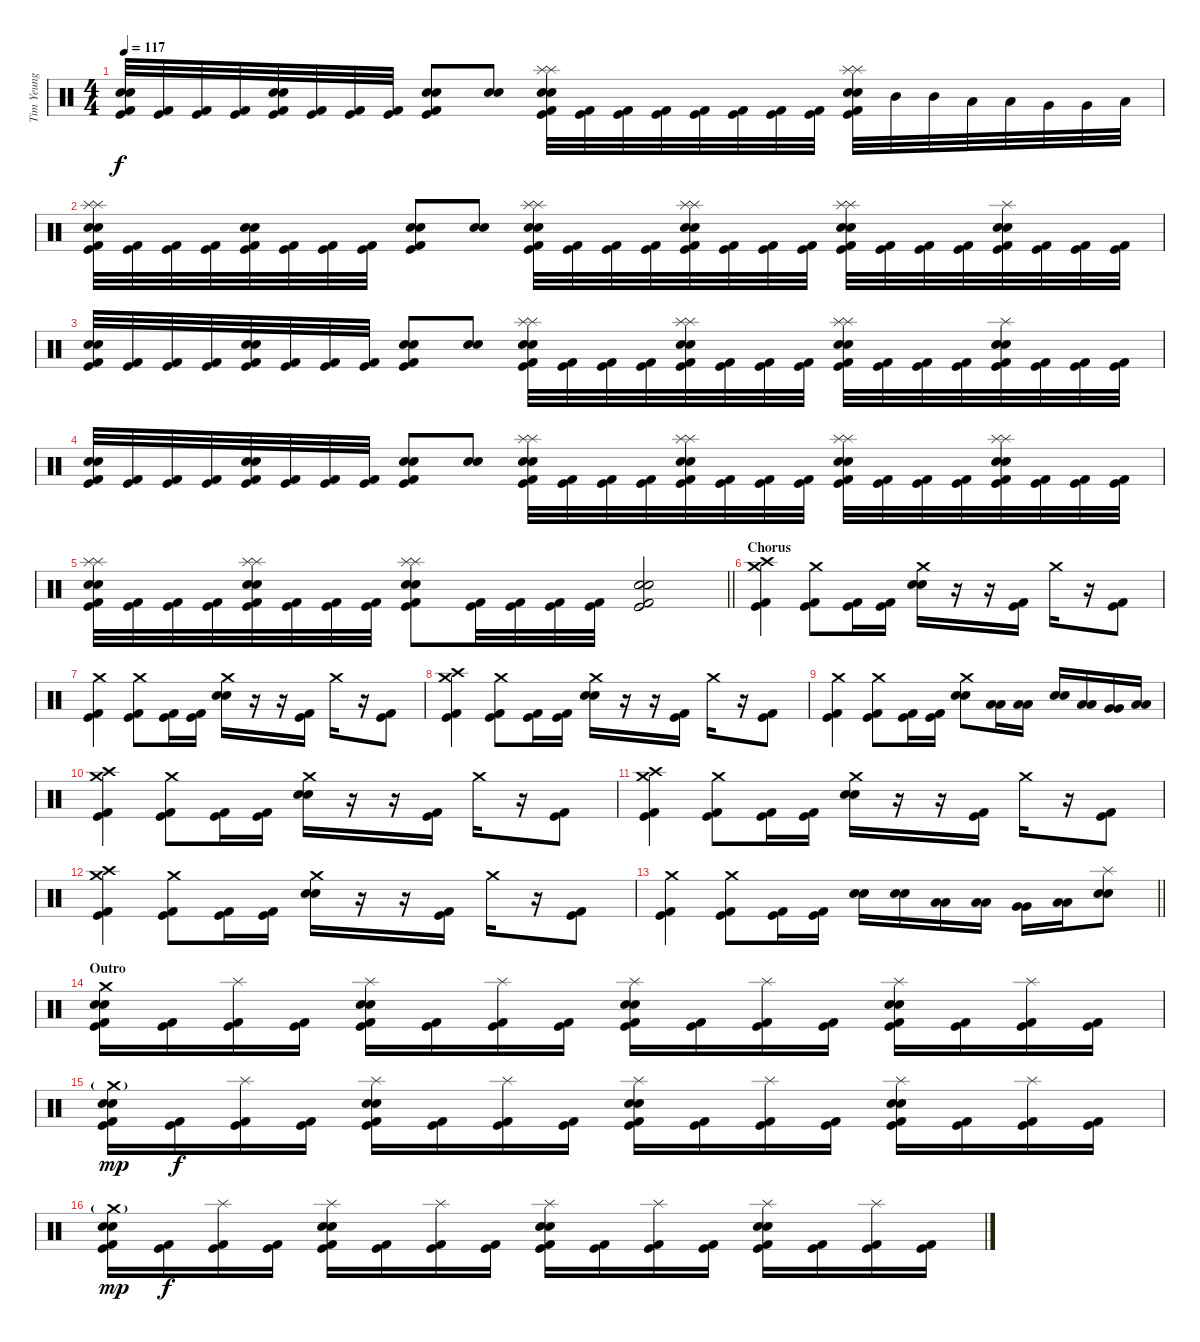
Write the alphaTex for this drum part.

\track ("Tim Yeung" "Tim Yeung") {instrument percussion}
\staff {score}
\articulation defaults
\ts (4 4)
\tempo 117
\clef neutral
\ks c
("Electric Snare (hit)" "Snare (hit) 2" "Kick (hit)" "Kick (hit) 2").32{dy f} ("Kick (hit)" "Kick (hit) 2").32 ("Kick (hit)" "Kick (hit) 2").32 ("Kick (hit)" "Kick (hit) 2").32 ("Electric Snare (hit)" "Snare (hit) 2" "Kick (hit)" "Kick (hit) 2").32 ("Kick (hit)" "Kick (hit) 2").32 ("Kick (hit)" "Kick (hit) 2").32 ("Kick (hit)" "Kick (hit) 2").32 ("Electric Snare (hit)" "Snare (hit) 2" "Kick (hit)" "Kick (hit) 2").8 ("Electric Snare (hit)" "Snare (hit) 2").8 ("Splash (hit)" "Splash (hit)" "Electric Snare (hit)" "Snare (hit) 2" "Kick (hit)" "Kick (hit) 2").32 ("Kick (hit)" "Kick (hit) 2").32 ("Kick (hit)" "Kick (hit) 2").32 ("Kick (hit)" "Kick (hit) 2").32 ("Kick (hit)" "Kick (hit) 2").32 ("Kick (hit)" "Kick (hit) 2").32 ("Kick (hit)" "Kick (hit) 2").32 ("Kick (hit)" "Kick (hit) 2").32 ("Splash (hit)" "Splash (hit)" "Electric Snare (hit)" "Snare (hit) 2" "Kick (hit)" "Kick (hit) 2").32 "Mid Tom (hit)".32 "Mid Tom (hit)".32 "Low Tom (hit)".32 "Low Tom (hit)".32 "Very Low Tom (hit)".32 "Very Low Tom (hit)".32 "Low Floor Tom (hit)".32 |
("Splash (hit)" "Splash (hit)" "Electric Snare (hit)" "Snare (hit) 2" "Kick (hit)" "Kick (hit) 2").32 ("Kick (hit)" "Kick (hit) 2").32 ("Kick (hit)" "Kick (hit) 2").32 ("Kick (hit)" "Kick (hit) 2").32 ("Electric Snare (hit)" "Snare (hit) 2" "Kick (hit)" "Kick (hit) 2").32 ("Kick (hit)" "Kick (hit) 2").32 ("Kick (hit)" "Kick (hit) 2").32 ("Kick (hit)" "Kick (hit) 2").32 ("Electric Snare (hit)" "Snare (hit) 2" "Kick (hit)" "Kick (hit) 2").8 ("Electric Snare (hit)" "Snare (hit) 2").8 ("Splash (hit)" "Splash (hit)" "Electric Snare (hit)" "Snare (hit) 2" "Kick (hit)" "Kick (hit) 2").32 ("Kick (hit)" "Kick (hit) 2").32 ("Kick (hit)" "Kick (hit) 2").32 ("Kick (hit)" "Kick (hit) 2").32 ("Splash (hit)" "Splash (hit)" "Electric Snare (hit)" "Snare (hit) 2" "Kick (hit)" "Kick (hit) 2").32 ("Kick (hit)" "Kick (hit) 2").32 ("Kick (hit)" "Kick (hit) 2").32 ("Kick (hit)" "Kick (hit) 2").32 ("Splash (hit)" "Splash (hit)" "Electric Snare (hit)" "Snare (hit) 2" "Kick (hit)" "Kick (hit) 2").32 ("Kick (hit)" "Kick (hit) 2").32 ("Kick (hit)" "Kick (hit) 2").32 ("Kick (hit)" "Kick (hit) 2").32 ("Splash (hit)" "Electric Snare (hit)" "Snare (hit) 2" "Kick (hit)" "Kick (hit) 2").32 ("Kick (hit)" "Kick (hit) 2").32 ("Kick (hit)" "Kick (hit) 2").32 ("Kick (hit)" "Kick (hit) 2").32 |
("Electric Snare (hit)" "Snare (hit) 2" "Kick (hit)" "Kick (hit) 2").32 ("Kick (hit)" "Kick (hit) 2").32 ("Kick (hit)" "Kick (hit) 2").32 ("Kick (hit)" "Kick (hit) 2").32 ("Electric Snare (hit)" "Snare (hit) 2" "Kick (hit)" "Kick (hit) 2").32 ("Kick (hit)" "Kick (hit) 2").32 ("Kick (hit)" "Kick (hit) 2").32 ("Kick (hit)" "Kick (hit) 2").32 ("Electric Snare (hit)" "Snare (hit) 2" "Kick (hit)" "Kick (hit) 2").8 ("Electric Snare (hit)" "Snare (hit) 2").8 ("Splash (hit)" "Splash (hit)" "Electric Snare (hit)" "Snare (hit) 2" "Kick (hit)" "Kick (hit) 2").32 ("Kick (hit)" "Kick (hit) 2").32 ("Kick (hit)" "Kick (hit) 2").32 ("Kick (hit)" "Kick (hit) 2").32 ("Splash (hit)" "Splash (hit)" "Electric Snare (hit)" "Snare (hit) 2" "Kick (hit)" "Kick (hit) 2").32 ("Kick (hit)" "Kick (hit) 2").32 ("Kick (hit)" "Kick (hit) 2").32 ("Kick (hit)" "Kick (hit) 2").32 ("Splash (hit)" "Splash (hit)" "Electric Snare (hit)" "Snare (hit) 2" "Kick (hit)" "Kick (hit) 2").32 ("Kick (hit)" "Kick (hit) 2").32 ("Kick (hit)" "Kick (hit) 2").32 ("Kick (hit)" "Kick (hit) 2").32 ("Splash (hit)" "Electric Snare (hit)" "Snare (hit) 2" "Kick (hit)" "Kick (hit) 2").32 ("Kick (hit)" "Kick (hit) 2").32 ("Kick (hit)" "Kick (hit) 2").32 ("Kick (hit)" "Kick (hit) 2").32 |
("Electric Snare (hit)" "Snare (hit) 2" "Kick (hit)" "Kick (hit) 2").32 ("Kick (hit)" "Kick (hit) 2").32 ("Kick (hit)" "Kick (hit) 2").32 ("Kick (hit)" "Kick (hit) 2").32 ("Electric Snare (hit)" "Snare (hit) 2" "Kick (hit)" "Kick (hit) 2").32 ("Kick (hit)" "Kick (hit) 2").32 ("Kick (hit)" "Kick (hit) 2").32 ("Kick (hit)" "Kick (hit) 2").32 ("Electric Snare (hit)" "Snare (hit) 2" "Kick (hit)" "Kick (hit) 2").8 ("Electric Snare (hit)" "Snare (hit) 2").8 ("Splash (hit)" "Splash (hit)" "Electric Snare (hit)" "Snare (hit) 2" "Kick (hit)" "Kick (hit) 2").32 ("Kick (hit)" "Kick (hit) 2").32 ("Kick (hit)" "Kick (hit) 2").32 ("Kick (hit)" "Kick (hit) 2").32 ("Splash (hit)" "Splash (hit)" "Electric Snare (hit)" "Snare (hit) 2" "Kick (hit)" "Kick (hit) 2").32 ("Kick (hit)" "Kick (hit) 2").32 ("Kick (hit)" "Kick (hit) 2").32 ("Kick (hit)" "Kick (hit) 2").32 ("Splash (hit)" "Splash (hit)" "Electric Snare (hit)" "Snare (hit) 2" "Kick (hit)" "Kick (hit) 2").32 ("Kick (hit)" "Kick (hit) 2").32 ("Kick (hit)" "Kick (hit) 2").32 ("Kick (hit)" "Kick (hit) 2").32 ("Splash (hit)" "Splash (hit)" "Electric Snare (hit)" "Snare (hit) 2" "Kick (hit)" "Kick (hit) 2").32 ("Kick (hit)" "Kick (hit) 2").32 ("Kick (hit)" "Kick (hit) 2").32 ("Kick (hit)" "Kick (hit) 2").32 |
\barLineRight lightlight
("Splash (hit)" "Splash (hit)" "Electric Snare (hit)" "Snare (hit) 2" "Kick (hit)" "Kick (hit) 2").32 ("Kick (hit)" "Kick (hit) 2").32 ("Kick (hit)" "Kick (hit) 2").32 ("Kick (hit)" "Kick (hit) 2").32 ("Splash (hit)" "Splash (hit)" "Electric Snare (hit)" "Snare (hit) 2" "Kick (hit)" "Kick (hit) 2").32 ("Kick (hit)" "Kick (hit) 2").32 ("Kick (hit)" "Kick (hit) 2").32 ("Kick (hit)" "Kick (hit) 2").32 ("Splash (hit)" "Splash (hit)" "Electric Snare (hit)" "Snare (hit) 2" "Kick (hit)" "Kick (hit) 2").8 ("Kick (hit)" "Kick (hit) 2").32 ("Kick (hit)" "Kick (hit) 2").32 ("Kick (hit)" "Kick (hit) 2").32 ("Kick (hit)" "Kick (hit) 2").32 ("Electric Snare (hit)" "Snare (hit) 2" "Kick (hit)" "Kick (hit) 2").2 |
\section ("" "Chorus")
("Crash high (hit)" "Crash medium (hit)" "Kick (hit)" "Kick (hit) 2").4 ("Crash medium (hit)" "Kick (hit)" "Kick (hit) 2").8 ("Kick (hit)" "Kick (hit) 2").16 ("Kick (hit)" "Kick (hit) 2").16 ("Crash medium (hit)" "Electric Snare (hit)" "Snare (hit) 2").16 r.16 r.16 ("Kick (hit)" "Kick (hit) 2").16 "Crash medium (hit)".16 r.16 ("Kick (hit)" "Kick (hit) 2").8 |
("Crash medium (hit)" "Kick (hit)" "Kick (hit) 2").4 ("Crash medium (hit)" "Kick (hit)" "Kick (hit) 2").8 ("Kick (hit)" "Kick (hit) 2").16 ("Kick (hit)" "Kick (hit) 2").16 ("Crash medium (hit)" "Electric Snare (hit)" "Snare (hit) 2").16 r.16 r.16 ("Kick (hit)" "Kick (hit) 2").16 "Crash medium (hit)".16 r.16 ("Kick (hit)" "Kick (hit) 2").8 |
("Crash high (hit)" "Crash medium (hit)" "Kick (hit)" "Kick (hit) 2").4 ("Crash medium (hit)" "Kick (hit)" "Kick (hit) 2").8 ("Kick (hit)" "Kick (hit) 2").16 ("Kick (hit)" "Kick (hit) 2").16 ("Crash medium (hit)" "Electric Snare (hit)" "Snare (hit) 2").16 r.16 r.16 ("Kick (hit)" "Kick (hit) 2").16 "Crash medium (hit)".16 r.16 ("Kick (hit)" "Kick (hit) 2").8 |
("Crash medium (hit)" "Kick (hit)" "Kick (hit) 2").4 ("Crash medium (hit)" "Kick (hit)" "Kick (hit) 2").8 ("Kick (hit)" "Kick (hit) 2").16 ("Kick (hit)" "Kick (hit) 2").16 ("Crash medium (hit)" "Electric Snare (hit)" "Snare (hit) 2").8 ("Low Tom (hit)" "Low Tom (hit)").16 ("Low Tom (hit)" "Low Tom (hit)").16 ("Electric Snare (hit)" "Snare (hit) 2").16 ("Low Tom (hit)" "Low Tom (hit)").16 ("Very Low Tom (hit)" "Very Low Tom (hit)").16 ("Low Floor Tom (hit)" "Low Floor Tom (hit)").16 |
("Crash high (hit)" "Crash medium (hit)" "Kick (hit)" "Kick (hit) 2").4 ("Crash medium (hit)" "Kick (hit)" "Kick (hit) 2").8 ("Kick (hit)" "Kick (hit) 2").16 ("Kick (hit)" "Kick (hit) 2").16 ("Crash medium (hit)" "Electric Snare (hit)" "Snare (hit) 2").16 r.16 r.16 ("Kick (hit)" "Kick (hit) 2").16 "Crash medium (hit)".16 r.16 ("Kick (hit)" "Kick (hit) 2").8 |
("Crash high (hit)" "Crash medium (hit)" "Kick (hit)" "Kick (hit) 2").4 ("Crash medium (hit)" "Kick (hit)" "Kick (hit) 2").8 ("Kick (hit)" "Kick (hit) 2").16 ("Kick (hit)" "Kick (hit) 2").16 ("Crash medium (hit)" "Electric Snare (hit)" "Snare (hit) 2").16 r.16 r.16 ("Kick (hit)" "Kick (hit) 2").16 "Crash medium (hit)".16 r.16 ("Kick (hit)" "Kick (hit) 2").8 |
("Crash high (hit)" "Crash medium (hit)" "Kick (hit)" "Kick (hit) 2").4 ("Crash medium (hit)" "Kick (hit)" "Kick (hit) 2").8 ("Kick (hit)" "Kick (hit) 2").16 ("Kick (hit)" "Kick (hit) 2").16 ("Crash medium (hit)" "Electric Snare (hit)" "Snare (hit) 2").16 r.16 r.16 ("Kick (hit)" "Kick (hit) 2").16 "Crash medium (hit)".16 r.16 ("Kick (hit)" "Kick (hit) 2").8 |
\barLineRight lightlight
("Crash medium (hit)" "Kick (hit)" "Kick (hit) 2").4 ("Crash medium (hit)" "Kick (hit)" "Kick (hit) 2").8 ("Kick (hit)" "Kick (hit) 2").16 ("Kick (hit)" "Kick (hit) 2").16 ("Electric Snare (hit)" "Snare (hit) 2").16 ("Electric Snare (hit)" "Snare (hit) 2").16 ("Low Tom (hit)" "Low Tom (hit)").16 ("Low Tom (hit)" "Low Tom (hit)").16 ("Very Low Tom (hit)" "Very Low Tom (hit)").16 ("Low Floor Tom (hit)" "Low Floor Tom (hit)").16 ("Splash (hit)" "Electric Snare (hit)" "Snare (hit) 2").8 |
\section ("" "Outro")
("Crash medium (hit)" "Electric Snare (hit)" "Snare (hit) 2" "Kick (hit)" "Kick (hit) 2").16 ("Kick (hit)" "Kick (hit) 2").16 ("Splash (hit)" "Kick (hit)" "Kick (hit) 2").16 ("Kick (hit)" "Kick (hit) 2").16 ("Splash (hit)" "Electric Snare (hit)" "Snare (hit) 2" "Kick (hit)" "Kick (hit) 2").16 ("Kick (hit)" "Kick (hit) 2").16 ("Splash (hit)" "Kick (hit)" "Kick (hit) 2").16 ("Kick (hit)" "Kick (hit) 2").16 ("Splash (hit)" "Electric Snare (hit)" "Snare (hit) 2" "Kick (hit)" "Kick (hit) 2").16 ("Kick (hit)" "Kick (hit) 2").16 ("Splash (hit)" "Kick (hit)" "Kick (hit) 2").16 ("Kick (hit)" "Kick (hit) 2").16 ("Splash (hit)" "Electric Snare (hit)" "Snare (hit) 2" "Kick (hit)" "Kick (hit) 2").16 ("Kick (hit)" "Kick (hit) 2").16 ("Splash (hit)" "Kick (hit)" "Kick (hit) 2").16 ("Kick (hit)" "Kick (hit) 2").16 |
("Crash medium (hit)"{g} "Electric Snare (hit)" "Snare (hit) 2" "Kick (hit)" "Kick (hit) 2").16{dy mp} ("Kick (hit)" "Kick (hit) 2").16{dy f} ("Splash (hit)" "Kick (hit)" "Kick (hit) 2").16 ("Kick (hit)" "Kick (hit) 2").16 ("Splash (hit)" "Electric Snare (hit)" "Snare (hit) 2" "Kick (hit)" "Kick (hit) 2").16 ("Kick (hit)" "Kick (hit) 2").16 ("Splash (hit)" "Kick (hit)" "Kick (hit) 2").16 ("Kick (hit)" "Kick (hit) 2").16 ("Splash (hit)" "Electric Snare (hit)" "Snare (hit) 2" "Kick (hit)" "Kick (hit) 2").16 ("Kick (hit)" "Kick (hit) 2").16 ("Splash (hit)" "Kick (hit)" "Kick (hit) 2").16 ("Kick (hit)" "Kick (hit) 2").16 ("Splash (hit)" "Electric Snare (hit)" "Snare (hit) 2" "Kick (hit)" "Kick (hit) 2").16 ("Kick (hit)" "Kick (hit) 2").16 ("Splash (hit)" "Kick (hit)" "Kick (hit) 2").16 ("Kick (hit)" "Kick (hit) 2").16 |
("Crash medium (hit)"{g} "Electric Snare (hit)" "Snare (hit) 2" "Kick (hit)" "Kick (hit) 2").16{dy mp} ("Kick (hit)" "Kick (hit) 2").16{dy f} ("Splash (hit)" "Kick (hit)" "Kick (hit) 2").16 ("Kick (hit)" "Kick (hit) 2").16 ("Splash (hit)" "Electric Snare (hit)" "Snare (hit) 2" "Kick (hit)" "Kick (hit) 2").16 ("Kick (hit)" "Kick (hit) 2").16 ("Splash (hit)" "Kick (hit)" "Kick (hit) 2").16 ("Kick (hit)" "Kick (hit) 2").16 ("Splash (hit)" "Electric Snare (hit)" "Snare (hit) 2" "Kick (hit)" "Kick (hit) 2").16 ("Kick (hit)" "Kick (hit) 2").16 ("Splash (hit)" "Kick (hit)" "Kick (hit) 2").16 ("Kick (hit)" "Kick (hit) 2").16 ("Splash (hit)" "Electric Snare (hit)" "Snare (hit) 2" "Kick (hit)" "Kick (hit) 2").16 ("Kick (hit)" "Kick (hit) 2").16 ("Splash (hit)" "Kick (hit)" "Kick (hit) 2").16 ("Kick (hit)" "Kick (hit) 2").16
